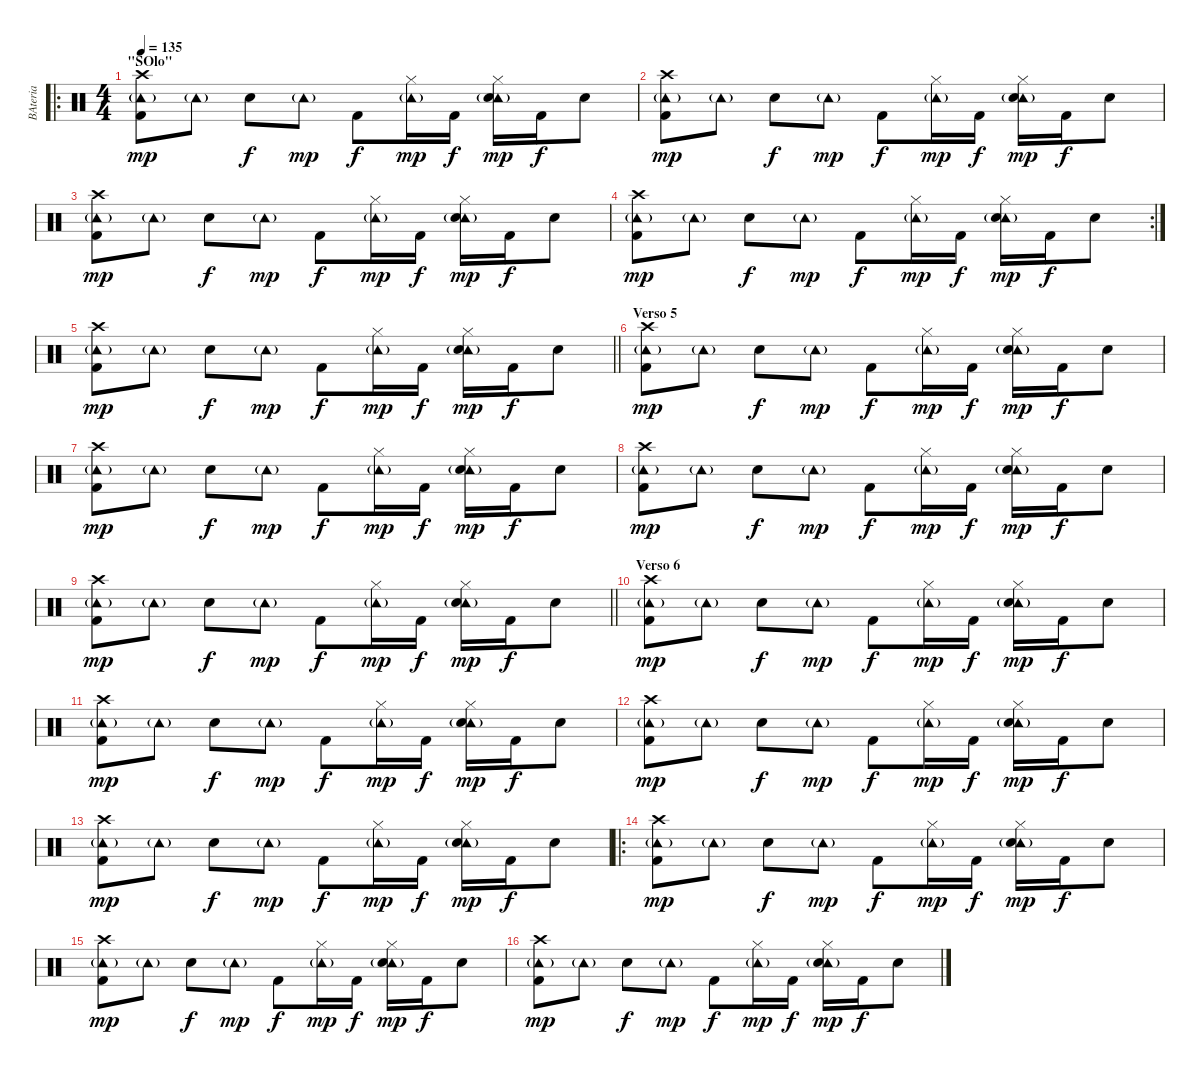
\track ("BAteria" "BAteria") {instrument percussion}
\staff {score}
\articulation defaults
\ro
\ts (4 4)
\section ("" "\"SOlo\"")
\tempo 135
\clef neutral
\ks c
("Crash high (hit)" "Tambourine (hit)"{g} "Kick (hit) 2").8{dy mp} "Tambourine (hit)"{g}.8 "Electric Snare (hit)".8{dy f} "Tambourine (hit)"{g}.8{dy mp} "Kick (hit) 2".8{dy f} ("Hi-Hat (closed)" "Tambourine (hit)"{g}).16{dy mp} "Kick (hit) 2".16{dy f} ("Hi-Hat (closed)" "Tambourine (hit)"{g} "Electric Snare (hit)").16{dy mp} "Kick (hit) 2".16{dy f} "Electric Snare (hit)".8 |
("Crash high (hit)" "Tambourine (hit)"{g} "Kick (hit) 2").8{dy mp} "Tambourine (hit)"{g}.8 "Electric Snare (hit)".8{dy f} "Tambourine (hit)"{g}.8{dy mp} "Kick (hit) 2".8{dy f} ("Hi-Hat (closed)" "Tambourine (hit)"{g}).16{dy mp} "Kick (hit) 2".16{dy f} ("Hi-Hat (closed)" "Tambourine (hit)"{g} "Electric Snare (hit)").16{dy mp} "Kick (hit) 2".16{dy f} "Electric Snare (hit)".8 |
("Crash high (hit)" "Tambourine (hit)"{g} "Kick (hit) 2").8{dy mp} "Tambourine (hit)"{g}.8 "Electric Snare (hit)".8{dy f} "Tambourine (hit)"{g}.8{dy mp} "Kick (hit) 2".8{dy f} ("Hi-Hat (closed)" "Tambourine (hit)"{g}).16{dy mp} "Kick (hit) 2".16{dy f} ("Hi-Hat (closed)" "Tambourine (hit)"{g} "Electric Snare (hit)").16{dy mp} "Kick (hit) 2".16{dy f} "Electric Snare (hit)".8 |
\rc 2
("Crash high (hit)" "Tambourine (hit)"{g} "Kick (hit) 2").8{dy mp} "Tambourine (hit)"{g}.8 "Electric Snare (hit)".8{dy f} "Tambourine (hit)"{g}.8{dy mp} "Kick (hit) 2".8{dy f} ("Hi-Hat (closed)" "Tambourine (hit)"{g}).16{dy mp} "Kick (hit) 2".16{dy f} ("Hi-Hat (closed)" "Tambourine (hit)"{g} "Electric Snare (hit)").16{dy mp} "Kick (hit) 2".16{dy f} "Electric Snare (hit)".8 |
\barLineRight lightlight
("Crash high (hit)" "Tambourine (hit)"{g} "Kick (hit) 2").8{dy mp} "Tambourine (hit)"{g}.8 "Electric Snare (hit)".8{dy f} "Tambourine (hit)"{g}.8{dy mp} "Kick (hit) 2".8{dy f} ("Hi-Hat (closed)" "Tambourine (hit)"{g}).16{dy mp} "Kick (hit) 2".16{dy f} ("Hi-Hat (closed)" "Tambourine (hit)"{g} "Electric Snare (hit)").16{dy mp} "Kick (hit) 2".16{dy f} "Electric Snare (hit)".8 |
\section ("" "Verso 5")
("Crash high (hit)" "Tambourine (hit)"{g} "Kick (hit) 2").8{dy mp} "Tambourine (hit)"{g}.8 "Electric Snare (hit)".8{dy f} "Tambourine (hit)"{g}.8{dy mp} "Kick (hit) 2".8{dy f} ("Hi-Hat (closed)" "Tambourine (hit)"{g}).16{dy mp} "Kick (hit) 2".16{dy f} ("Hi-Hat (closed)" "Tambourine (hit)"{g} "Electric Snare (hit)").16{dy mp} "Kick (hit) 2".16{dy f} "Electric Snare (hit)".8 |
("Crash high (hit)" "Tambourine (hit)"{g} "Kick (hit) 2").8{dy mp} "Tambourine (hit)"{g}.8 "Electric Snare (hit)".8{dy f} "Tambourine (hit)"{g}.8{dy mp} "Kick (hit) 2".8{dy f} ("Hi-Hat (closed)" "Tambourine (hit)"{g}).16{dy mp} "Kick (hit) 2".16{dy f} ("Hi-Hat (closed)" "Tambourine (hit)"{g} "Electric Snare (hit)").16{dy mp} "Kick (hit) 2".16{dy f} "Electric Snare (hit)".8 |
("Crash high (hit)" "Tambourine (hit)"{g} "Kick (hit) 2").8{dy mp} "Tambourine (hit)"{g}.8 "Electric Snare (hit)".8{dy f} "Tambourine (hit)"{g}.8{dy mp} "Kick (hit) 2".8{dy f} ("Hi-Hat (closed)" "Tambourine (hit)"{g}).16{dy mp} "Kick (hit) 2".16{dy f} ("Hi-Hat (closed)" "Tambourine (hit)"{g} "Electric Snare (hit)").16{dy mp} "Kick (hit) 2".16{dy f} "Electric Snare (hit)".8 |
\barLineRight lightlight
("Crash high (hit)" "Tambourine (hit)"{g} "Kick (hit) 2").8{dy mp} "Tambourine (hit)"{g}.8 "Electric Snare (hit)".8{dy f} "Tambourine (hit)"{g}.8{dy mp} "Kick (hit) 2".8{dy f} ("Hi-Hat (closed)" "Tambourine (hit)"{g}).16{dy mp} "Kick (hit) 2".16{dy f} ("Hi-Hat (closed)" "Tambourine (hit)"{g} "Electric Snare (hit)").16{dy mp} "Kick (hit) 2".16{dy f} "Electric Snare (hit)".8 |
\section ("" "Verso 6")
("Crash high (hit)" "Tambourine (hit)"{g} "Kick (hit) 2").8{dy mp} "Tambourine (hit)"{g}.8 "Electric Snare (hit)".8{dy f} "Tambourine (hit)"{g}.8{dy mp} "Kick (hit) 2".8{dy f} ("Hi-Hat (closed)" "Tambourine (hit)"{g}).16{dy mp} "Kick (hit) 2".16{dy f} ("Hi-Hat (closed)" "Tambourine (hit)"{g} "Electric Snare (hit)").16{dy mp} "Kick (hit) 2".16{dy f} "Electric Snare (hit)".8 |
("Crash high (hit)" "Tambourine (hit)"{g} "Kick (hit) 2").8{dy mp} "Tambourine (hit)"{g}.8 "Electric Snare (hit)".8{dy f} "Tambourine (hit)"{g}.8{dy mp} "Kick (hit) 2".8{dy f} ("Hi-Hat (closed)" "Tambourine (hit)"{g}).16{dy mp} "Kick (hit) 2".16{dy f} ("Hi-Hat (closed)" "Tambourine (hit)"{g} "Electric Snare (hit)").16{dy mp} "Kick (hit) 2".16{dy f} "Electric Snare (hit)".8 |
("Crash high (hit)" "Tambourine (hit)"{g} "Kick (hit) 2").8{dy mp} "Tambourine (hit)"{g}.8 "Electric Snare (hit)".8{dy f} "Tambourine (hit)"{g}.8{dy mp} "Kick (hit) 2".8{dy f} ("Hi-Hat (closed)" "Tambourine (hit)"{g}).16{dy mp} "Kick (hit) 2".16{dy f} ("Hi-Hat (closed)" "Tambourine (hit)"{g} "Electric Snare (hit)").16{dy mp} "Kick (hit) 2".16{dy f} "Electric Snare (hit)".8 |
("Crash high (hit)" "Tambourine (hit)"{g} "Kick (hit) 2").8{dy mp} "Tambourine (hit)"{g}.8 "Electric Snare (hit)".8{dy f} "Tambourine (hit)"{g}.8{dy mp} "Kick (hit) 2".8{dy f} ("Hi-Hat (closed)" "Tambourine (hit)"{g}).16{dy mp} "Kick (hit) 2".16{dy f} ("Hi-Hat (closed)" "Tambourine (hit)"{g} "Electric Snare (hit)").16{dy mp} "Kick (hit) 2".16{dy f} "Electric Snare (hit)".8 |
\ro
("Crash high (hit)" "Tambourine (hit)"{g} "Kick (hit) 2").8{dy mp} "Tambourine (hit)"{g}.8 "Electric Snare (hit)".8{dy f} "Tambourine (hit)"{g}.8{dy mp} "Kick (hit) 2".8{dy f} ("Hi-Hat (closed)" "Tambourine (hit)"{g}).16{dy mp} "Kick (hit) 2".16{dy f} ("Hi-Hat (closed)" "Tambourine (hit)"{g} "Electric Snare (hit)").16{dy mp} "Kick (hit) 2".16{dy f} "Electric Snare (hit)".8 |
("Crash high (hit)" "Tambourine (hit)"{g} "Kick (hit) 2").8{dy mp} "Tambourine (hit)"{g}.8 "Electric Snare (hit)".8{dy f} "Tambourine (hit)"{g}.8{dy mp} "Kick (hit) 2".8{dy f} ("Hi-Hat (closed)" "Tambourine (hit)"{g}).16{dy mp} "Kick (hit) 2".16{dy f} ("Hi-Hat (closed)" "Tambourine (hit)"{g} "Electric Snare (hit)").16{dy mp} "Kick (hit) 2".16{dy f} "Electric Snare (hit)".8 |
("Crash high (hit)" "Tambourine (hit)"{g} "Kick (hit) 2").8{dy mp} "Tambourine (hit)"{g}.8 "Electric Snare (hit)".8{dy f} "Tambourine (hit)"{g}.8{dy mp} "Kick (hit) 2".8{dy f} ("Hi-Hat (closed)" "Tambourine (hit)"{g}).16{dy mp} "Kick (hit) 2".16{dy f} ("Hi-Hat (closed)" "Tambourine (hit)"{g} "Electric Snare (hit)").16{dy mp} "Kick (hit) 2".16{dy f} "Electric Snare (hit)".8
